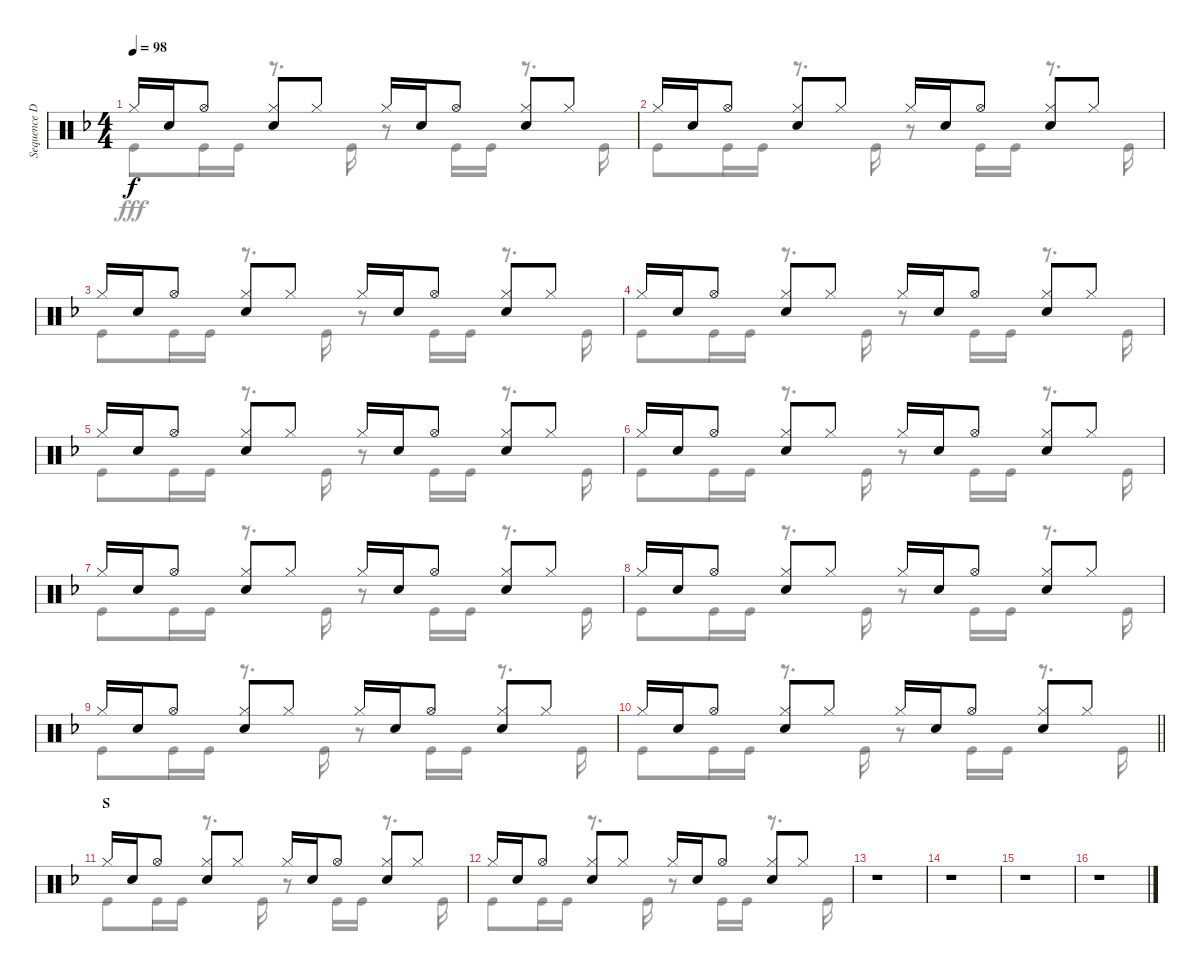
\track ("Sequence Drums II" "Sequence D") {instrument percussion}
\staff {score}
\articulation defaults
\voice
\ts (4 4)
\tempo 98
\clef neutral
\ks f "Hi-Hat (closed)".16{dy f} "Snare (hit) 2".16 "Hi-Hat (open)".8
("Hi-Hat (closed)" "Snare (hit) 2").8 "Hi-Hat (closed)".8 "Hi-Hat (closed)".16 "Snare (hit) 2".16 "Hi-Hat (open)".8 ("Hi-Hat (closed)" "Snare (hit) 2").8 "Hi-Hat (closed)".8 |
"Hi-Hat (closed)".16 "Snare (hit) 2".16 "Hi-Hat (open)".8 ("Hi-Hat (closed)" "Snare (hit) 2").8 "Hi-Hat (closed)".8 "Hi-Hat (closed)".16 "Snare (hit) 2".16 "Hi-Hat (open)".8 ("Hi-Hat (closed)" "Snare (hit) 2").8 "Hi-Hat (closed)".8 |
"Hi-Hat (closed)".16 "Snare (hit) 2".16 "Hi-Hat (open)".8 ("Hi-Hat (closed)" "Snare (hit) 2").8 "Hi-Hat (closed)".8 "Hi-Hat (closed)".16 "Snare (hit) 2".16 "Hi-Hat (open)".8 ("Hi-Hat (closed)" "Snare (hit) 2").8 "Hi-Hat (closed)".8 |
"Hi-Hat (closed)".16 "Snare (hit) 2".16 "Hi-Hat (open)".8 ("Hi-Hat (closed)" "Snare (hit) 2").8 "Hi-Hat (closed)".8 "Hi-Hat (closed)".16 "Snare (hit) 2".16 "Hi-Hat (open)".8 ("Hi-Hat (closed)" "Snare (hit) 2").8 "Hi-Hat (closed)".8 |
"Hi-Hat (closed)".16 "Snare (hit) 2".16 "Hi-Hat (open)".8 ("Hi-Hat (closed)" "Snare (hit) 2").8 "Hi-Hat (closed)".8 "Hi-Hat (closed)".16 "Snare (hit) 2".16 "Hi-Hat (open)".8 ("Hi-Hat (closed)" "Snare (hit) 2").8 "Hi-Hat (closed)".8 |
"Hi-Hat (closed)".16 "Snare (hit) 2".16 "Hi-Hat (open)".8 ("Hi-Hat (closed)" "Snare (hit) 2").8 "Hi-Hat (closed)".8 "Hi-Hat (closed)".16 "Snare (hit) 2".16 "Hi-Hat (open)".8 ("Hi-Hat (closed)" "Snare (hit) 2").8 "Hi-Hat (closed)".8 |
"Hi-Hat (closed)".16 "Snare (hit) 2".16 "Hi-Hat (open)".8 ("Hi-Hat (closed)" "Snare (hit) 2").8 "Hi-Hat (closed)".8 "Hi-Hat (closed)".16 "Snare (hit) 2".16 "Hi-Hat (open)".8 ("Hi-Hat (closed)" "Snare (hit) 2").8 "Hi-Hat (closed)".8 |
"Hi-Hat (closed)".16 "Snare (hit) 2".16 "Hi-Hat (open)".8 ("Hi-Hat (closed)" "Snare (hit) 2").8 "Hi-Hat (closed)".8 "Hi-Hat (closed)".16 "Snare (hit) 2".16 "Hi-Hat (open)".8 ("Hi-Hat (closed)" "Snare (hit) 2").8 "Hi-Hat (closed)".8 |
"Hi-Hat (closed)".16 "Snare (hit) 2".16 "Hi-Hat (open)".8 ("Hi-Hat (closed)" "Snare (hit) 2").8 "Hi-Hat (closed)".8 "Hi-Hat (closed)".16 "Snare (hit) 2".16 "Hi-Hat (open)".8 ("Hi-Hat (closed)" "Snare (hit) 2").8 "Hi-Hat (closed)".8 |
\barLineRight lightlight "Hi-Hat (closed)".16 "Snare (hit) 2".16 "Hi-Hat (open)".8
("Hi-Hat (closed)" "Snare (hit) 2").8 "Hi-Hat (closed)".8 "Hi-Hat (closed)".16 "Snare (hit) 2".16 "Hi-Hat (open)".8 ("Hi-Hat (closed)" "Snare (hit) 2").8 "Hi-Hat (closed)".8 |
\section ("" "S")
"Hi-Hat (closed)".16 "Snare (hit) 2".16 "Hi-Hat (open)".8 ("Hi-Hat (closed)" "Snare (hit) 2").8 "Hi-Hat (closed)".8 "Hi-Hat (closed)".16 "Snare (hit) 2".16 "Hi-Hat (open)".8 ("Hi-Hat (closed)" "Snare (hit) 2").8 "Hi-Hat (closed)".8 |
"Hi-Hat (closed)".16 "Snare (hit) 2".16 "Hi-Hat (open)".8 ("Hi-Hat (closed)" "Snare (hit) 2").8 "Hi-Hat (closed)".8 "Hi-Hat (closed)".16 "Snare (hit) 2".16 "Hi-Hat (open)".8 ("Hi-Hat (closed)" "Snare (hit) 2").8 "Hi-Hat (closed)".8 |
r.1 |
r.1 |
r.1 |
r.1
\voice
\clef neutral
\ottava regular
\simile none
\ks f "Kick (hit)".8{dy fff} "Kick (hit)".16 "Kick (hit)".16
r.8{d} "Kick (hit)".16 r.8 "Kick (hit)".16 "Kick (hit)".16 r.8{d} "Kick (hit)".16 |
"Kick (hit)".8 "Kick (hit)".16 "Kick (hit)".16 r.8{d} "Kick (hit)".16 r.8 "Kick (hit)".16 "Kick (hit)".16 r.8{d} "Kick (hit)".16 |
"Kick (hit)".8 "Kick (hit)".16 "Kick (hit)".16 r.8{d} "Kick (hit)".16 r.8 "Kick (hit)".16 "Kick (hit)".16 r.8{d} "Kick (hit)".16 |
"Kick (hit)".8 "Kick (hit)".16 "Kick (hit)".16 r.8{d} "Kick (hit)".16 r.8 "Kick (hit)".16 "Kick (hit)".16 r.8{d} "Kick (hit)".16 |
"Kick (hit)".8 "Kick (hit)".16 "Kick (hit)".16 r.8{d} "Kick (hit)".16 r.8 "Kick (hit)".16 "Kick (hit)".16 r.8{d} "Kick (hit)".16 |
"Kick (hit)".8 "Kick (hit)".16 "Kick (hit)".16 r.8{d} "Kick (hit)".16 r.8 "Kick (hit)".16 "Kick (hit)".16 r.8{d} "Kick (hit)".16 |
"Kick (hit)".8 "Kick (hit)".16 "Kick (hit)".16 r.8{d} "Kick (hit)".16 r.8 "Kick (hit)".16 "Kick (hit)".16 r.8{d} "Kick (hit)".16 |
"Kick (hit)".8 "Kick (hit)".16 "Kick (hit)".16 r.8{d} "Kick (hit)".16 r.8 "Kick (hit)".16 "Kick (hit)".16 r.8{d} "Kick (hit)".16 |
"Kick (hit)".8 "Kick (hit)".16 "Kick (hit)".16 r.8{d} "Kick (hit)".16 r.8 "Kick (hit)".16 "Kick (hit)".16 r.8{d} "Kick (hit)".16 |
\barLineRight lightlight "Kick (hit)".8 "Kick (hit)".16 "Kick (hit)".16
r.8{d} "Kick (hit)".16 r.8 "Kick (hit)".16 "Kick (hit)".16 r.8{d} "Kick (hit)".16 |
"Kick (hit)".8 "Kick (hit)".16 "Kick (hit)".16 r.8{d} "Kick (hit)".16 r.8 "Kick (hit)".16 "Kick (hit)".16 r.8{d} "Kick (hit)".16 |
"Kick (hit)".8 "Kick (hit)".16 "Kick (hit)".16 r.8{d} "Kick (hit)".16 r.8 "Kick (hit)".16 "Kick (hit)".16 r.8{d} "Kick (hit)".16 |
r.1 |
r.1 |
r.1 |
r.1
